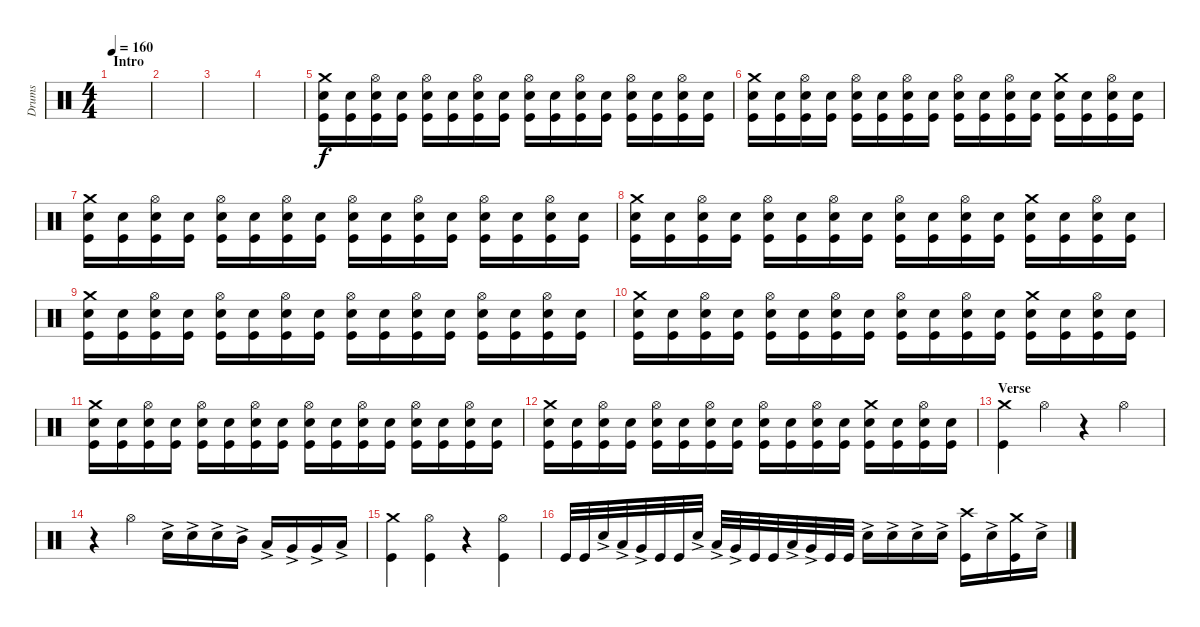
\track ("Drums" "Drums") {instrument percussion}
\staff {score}
\articulation defaults
\ts (4 4)
\section ("" "Intro")
\tempo 160
\clef neutral
\ks c
|
|
|
|
("Kick (hit)" "Crash medium (hit)" "Snare (hit) 2").16 ("Kick (hit)" "Snare (hit) 2").16 ("Kick (hit)" "Hi-Hat (open)" "Snare (hit) 2").16 ("Kick (hit)" "Snare (hit) 2").16 ("Kick (hit)" "Hi-Hat (open)" "Snare (hit) 2").16 ("Kick (hit)" "Snare (hit) 2").16 ("Kick (hit)" "Hi-Hat (open)" "Snare (hit) 2").16 ("Kick (hit)" "Snare (hit) 2").16 ("Kick (hit)" "Hi-Hat (open)" "Snare (hit) 2").16 ("Kick (hit)" "Snare (hit) 2").16 ("Kick (hit)" "Hi-Hat (open)" "Snare (hit) 2").16 ("Kick (hit)" "Snare (hit) 2").16 ("Kick (hit)" "Hi-Hat (open)" "Snare (hit) 2").16 ("Kick (hit)" "Snare (hit) 2").16 ("Kick (hit)" "Hi-Hat (open)" "Snare (hit) 2").16 ("Kick (hit)" "Snare (hit) 2").16 |
("Kick (hit)" "Snare (hit) 2" "Crash medium (hit)").16 ("Kick (hit)" "Snare (hit) 2").16 ("Kick (hit)" "Hi-Hat (open)" "Snare (hit) 2").16 ("Kick (hit)" "Snare (hit) 2").16 ("Kick (hit)" "Hi-Hat (open)" "Snare (hit) 2").16 ("Kick (hit)" "Snare (hit) 2").16 ("Kick (hit)" "Hi-Hat (open)" "Snare (hit) 2").16 ("Kick (hit)" "Snare (hit) 2").16 ("Kick (hit)" "Hi-Hat (open)" "Snare (hit) 2").16 ("Kick (hit)" "Snare (hit) 2").16 ("Kick (hit)" "Hi-Hat (open)" "Snare (hit) 2").16 ("Kick (hit)" "Snare (hit) 2").16 ("Kick (hit)" "Snare (hit) 2" "Crash medium (hit)").16 ("Kick (hit)" "Snare (hit) 2").16 ("Kick (hit)" "Hi-Hat (open)" "Snare (hit) 2").16 ("Kick (hit)" "Snare (hit) 2").16 |
("Kick (hit)" "Crash medium (hit)" "Snare (hit) 2").16 ("Kick (hit)" "Snare (hit) 2").16 ("Kick (hit)" "Hi-Hat (open)" "Snare (hit) 2").16 ("Kick (hit)" "Snare (hit) 2").16 ("Kick (hit)" "Hi-Hat (open)" "Snare (hit) 2").16 ("Kick (hit)" "Snare (hit) 2").16 ("Kick (hit)" "Hi-Hat (open)" "Snare (hit) 2").16 ("Kick (hit)" "Snare (hit) 2").16 ("Kick (hit)" "Hi-Hat (open)" "Snare (hit) 2").16 ("Kick (hit)" "Snare (hit) 2").16 ("Kick (hit)" "Hi-Hat (open)" "Snare (hit) 2").16 ("Kick (hit)" "Snare (hit) 2").16 ("Kick (hit)" "Hi-Hat (open)" "Snare (hit) 2").16 ("Kick (hit)" "Snare (hit) 2").16 ("Kick (hit)" "Hi-Hat (open)" "Snare (hit) 2").16 ("Kick (hit)" "Snare (hit) 2").16 |
("Kick (hit)" "Snare (hit) 2" "Crash medium (hit)").16 ("Kick (hit)" "Snare (hit) 2").16 ("Kick (hit)" "Hi-Hat (open)" "Snare (hit) 2").16 ("Kick (hit)" "Snare (hit) 2").16 ("Kick (hit)" "Hi-Hat (open)" "Snare (hit) 2").16 ("Kick (hit)" "Snare (hit) 2").16 ("Kick (hit)" "Hi-Hat (open)" "Snare (hit) 2").16 ("Kick (hit)" "Snare (hit) 2").16 ("Kick (hit)" "Hi-Hat (open)" "Snare (hit) 2").16 ("Kick (hit)" "Snare (hit) 2").16 ("Kick (hit)" "Hi-Hat (open)" "Snare (hit) 2").16 ("Kick (hit)" "Snare (hit) 2").16 ("Kick (hit)" "Snare (hit) 2" "Crash medium (hit)").16 ("Kick (hit)" "Snare (hit) 2").16 ("Kick (hit)" "Hi-Hat (open)" "Snare (hit) 2").16 ("Kick (hit)" "Snare (hit) 2").16 |
("Kick (hit)" "Crash medium (hit)" "Snare (hit) 2").16 ("Kick (hit)" "Snare (hit) 2").16 ("Kick (hit)" "Hi-Hat (open)" "Snare (hit) 2").16 ("Kick (hit)" "Snare (hit) 2").16 ("Kick (hit)" "Hi-Hat (open)" "Snare (hit) 2").16 ("Kick (hit)" "Snare (hit) 2").16 ("Kick (hit)" "Hi-Hat (open)" "Snare (hit) 2").16 ("Kick (hit)" "Snare (hit) 2").16 ("Kick (hit)" "Hi-Hat (open)" "Snare (hit) 2").16 ("Kick (hit)" "Snare (hit) 2").16 ("Kick (hit)" "Hi-Hat (open)" "Snare (hit) 2").16 ("Kick (hit)" "Snare (hit) 2").16 ("Kick (hit)" "Hi-Hat (open)" "Snare (hit) 2").16 ("Kick (hit)" "Snare (hit) 2").16 ("Kick (hit)" "Hi-Hat (open)" "Snare (hit) 2").16 ("Kick (hit)" "Snare (hit) 2").16 |
("Kick (hit)" "Snare (hit) 2" "Crash medium (hit)").16 ("Kick (hit)" "Snare (hit) 2").16 ("Kick (hit)" "Hi-Hat (open)" "Snare (hit) 2").16 ("Kick (hit)" "Snare (hit) 2").16 ("Kick (hit)" "Hi-Hat (open)" "Snare (hit) 2").16 ("Kick (hit)" "Snare (hit) 2").16 ("Kick (hit)" "Hi-Hat (open)" "Snare (hit) 2").16 ("Kick (hit)" "Snare (hit) 2").16 ("Kick (hit)" "Hi-Hat (open)" "Snare (hit) 2").16 ("Kick (hit)" "Snare (hit) 2").16 ("Kick (hit)" "Hi-Hat (open)" "Snare (hit) 2").16 ("Kick (hit)" "Snare (hit) 2").16 ("Kick (hit)" "Snare (hit) 2" "Crash medium (hit)").16 ("Kick (hit)" "Snare (hit) 2").16 ("Kick (hit)" "Hi-Hat (open)" "Snare (hit) 2").16 ("Kick (hit)" "Snare (hit) 2").16 |
("Kick (hit)" "Crash medium (hit)" "Snare (hit) 2").16 ("Kick (hit)" "Snare (hit) 2").16 ("Kick (hit)" "Hi-Hat (open)" "Snare (hit) 2").16 ("Kick (hit)" "Snare (hit) 2").16 ("Kick (hit)" "Hi-Hat (open)" "Snare (hit) 2").16 ("Kick (hit)" "Snare (hit) 2").16 ("Kick (hit)" "Hi-Hat (open)" "Snare (hit) 2").16 ("Kick (hit)" "Snare (hit) 2").16 ("Kick (hit)" "Hi-Hat (open)" "Snare (hit) 2").16 ("Kick (hit)" "Snare (hit) 2").16 ("Kick (hit)" "Hi-Hat (open)" "Snare (hit) 2").16 ("Kick (hit)" "Snare (hit) 2").16 ("Kick (hit)" "Hi-Hat (open)" "Snare (hit) 2").16 ("Kick (hit)" "Snare (hit) 2").16 ("Kick (hit)" "Hi-Hat (open)" "Snare (hit) 2").16 ("Kick (hit)" "Snare (hit) 2").16 |
("Kick (hit)" "Snare (hit) 2" "Crash medium (hit)").16 ("Kick (hit)" "Snare (hit) 2").16 ("Kick (hit)" "Hi-Hat (open)" "Snare (hit) 2").16 ("Kick (hit)" "Snare (hit) 2").16 ("Kick (hit)" "Hi-Hat (open)" "Snare (hit) 2").16 ("Kick (hit)" "Snare (hit) 2").16 ("Kick (hit)" "Hi-Hat (open)" "Snare (hit) 2").16 ("Kick (hit)" "Snare (hit) 2").16 ("Kick (hit)" "Hi-Hat (open)" "Snare (hit) 2").16 ("Kick (hit)" "Snare (hit) 2").16 ("Kick (hit)" "Hi-Hat (open)" "Snare (hit) 2").16 ("Kick (hit)" "Snare (hit) 2").16 ("Kick (hit)" "Snare (hit) 2" "Crash medium (hit)").16 ("Kick (hit)" "Snare (hit) 2").16 ("Kick (hit)" "Hi-Hat (open)" "Snare (hit) 2").16 ("Kick (hit)" "Snare (hit) 2").16 |
\section ("" "Verse")
("Kick (hit)" "Crash medium (hit)").4 "Hi-Hat (open)".4 r.4 "Hi-Hat (open)".4 |
r.4 "Hi-Hat (open)".4 "Snare (hit) 2"{ac}.16 "Snare (hit) 2"{ac}.16 "Snare (hit) 2"{ac}.16 "Mid Tom (hit)"{ac}.16 "Low Tom (hit)"{ac}.16 "Very Low Tom (hit)"{ac}.16 "Very Low Tom (hit)"{ac}.16 "Low Floor Tom (hit)"{ac}.16 |
("Kick (hit)" "Crash medium (hit)").4 ("Hi-Hat (open)" "Kick (hit)").4 r.4 ("Hi-Hat (open)" "Kick (hit)").4 |
"Kick (hit)".32 "Kick (hit)".32 "Snare (hit) 2"{ac}.32 "Low Tom (hit)"{ac}.32 "Very Low Tom (hit)"{ac}.32 "Kick (hit)".32 "Kick (hit)".32 "Snare (hit) 2"{ac}.32 "Low Tom (hit)"{ac}.32 "Very Low Tom (hit)"{ac}.32 "Kick (hit)".32 "Kick (hit)".32 "Low Tom (hit)"{ac}.32 "Very Low Tom (hit)"{ac}.32 "Kick (hit)".32 "Kick (hit)".32 "Snare (hit) 2"{ac}.16 "Snare (hit) 2"{ac}.16 "Snare (hit) 2"{ac}.16 "Snare (hit) 2"{ac}.16 ("Kick (hit)" "Crash high (hit)").16 "Snare (hit) 2"{ac}.16 ("Kick (hit)" "Crash medium (hit)").16 "Snare (hit) 2"{ac}.16
